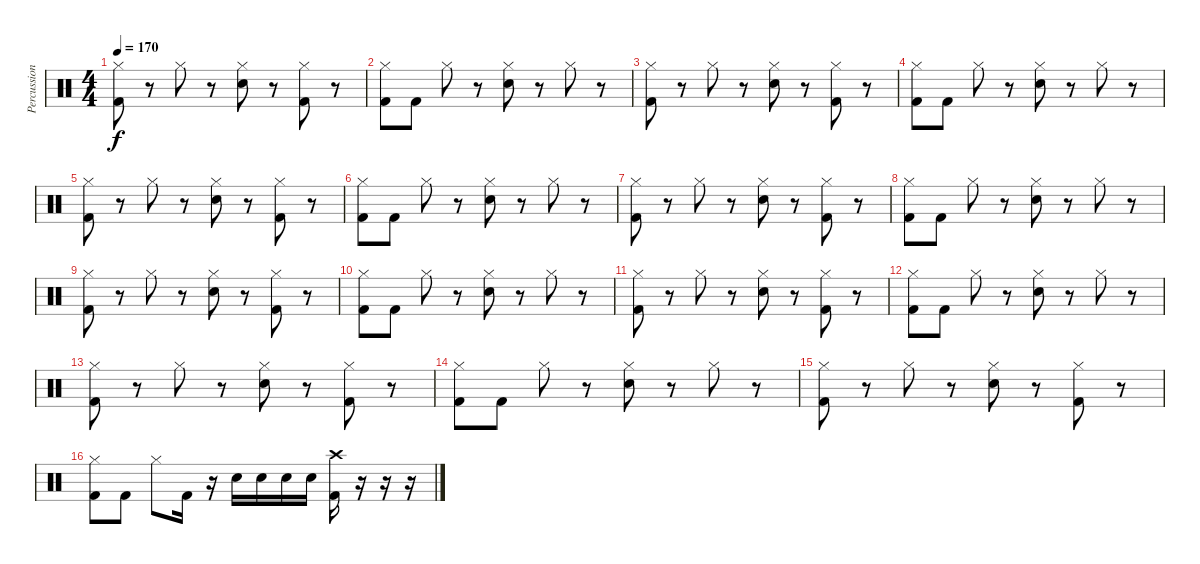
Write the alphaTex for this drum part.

\track ("Percussions" "Percussion") {instrument percussion}
\staff {score}
\articulation defaults
\ts (4 4)
\tempo 170
\clef neutral
\ks c
("Kick (hit) 2" "Hi-Hat (closed)").8{dy f} r.8 "Hi-Hat (closed)".8 r.8 ("Electric Snare (hit)" "Hi-Hat (closed)").8 r.8 ("Kick (hit) 2" "Hi-Hat (closed)").8 r.8 |
("Kick (hit) 2" "Hi-Hat (closed)").8 "Kick (hit) 2".8 "Hi-Hat (closed)".8 r.8 ("Electric Snare (hit)" "Hi-Hat (closed)").8 r.8 "Hi-Hat (closed)".8 r.8 |
("Kick (hit) 2" "Hi-Hat (closed)").8 r.8 "Hi-Hat (closed)".8 r.8 ("Electric Snare (hit)" "Hi-Hat (closed)").8 r.8 ("Kick (hit) 2" "Hi-Hat (closed)").8 r.8 |
("Kick (hit) 2" "Hi-Hat (closed)").8 "Kick (hit) 2".8 "Hi-Hat (closed)".8 r.8 ("Electric Snare (hit)" "Hi-Hat (closed)").8 r.8 "Hi-Hat (closed)".8 r.8 |
("Kick (hit) 2" "Hi-Hat (closed)").8 r.8 "Hi-Hat (closed)".8 r.8 ("Electric Snare (hit)" "Hi-Hat (closed)").8 r.8 ("Kick (hit) 2" "Hi-Hat (closed)").8 r.8 |
("Kick (hit) 2" "Hi-Hat (closed)").8 "Kick (hit) 2".8 "Hi-Hat (closed)".8 r.8 ("Electric Snare (hit)" "Hi-Hat (closed)").8 r.8 "Hi-Hat (closed)".8 r.8 |
("Kick (hit) 2" "Hi-Hat (closed)").8 r.8 "Hi-Hat (closed)".8 r.8 ("Electric Snare (hit)" "Hi-Hat (closed)").8 r.8 ("Kick (hit) 2" "Hi-Hat (closed)").8 r.8 |
("Kick (hit) 2" "Hi-Hat (closed)").8 "Kick (hit) 2".8 "Hi-Hat (closed)".8 r.8 ("Electric Snare (hit)" "Hi-Hat (closed)").8 r.8 "Hi-Hat (closed)".8 r.8 |
("Kick (hit) 2" "Hi-Hat (closed)").8 r.8 "Hi-Hat (closed)".8 r.8 ("Electric Snare (hit)" "Hi-Hat (closed)").8 r.8 ("Kick (hit) 2" "Hi-Hat (closed)").8 r.8 |
("Kick (hit) 2" "Hi-Hat (closed)").8 "Kick (hit) 2".8 "Hi-Hat (closed)".8 r.8 ("Electric Snare (hit)" "Hi-Hat (closed)").8 r.8 "Hi-Hat (closed)".8 r.8 |
("Kick (hit) 2" "Hi-Hat (closed)").8 r.8 "Hi-Hat (closed)".8 r.8 ("Electric Snare (hit)" "Hi-Hat (closed)").8 r.8 ("Kick (hit) 2" "Hi-Hat (closed)").8 r.8 |
("Kick (hit) 2" "Hi-Hat (closed)").8 "Kick (hit) 2".8 "Hi-Hat (closed)".8 r.8 ("Electric Snare (hit)" "Hi-Hat (closed)").8 r.8 "Hi-Hat (closed)".8 r.8 |
("Kick (hit) 2" "Hi-Hat (closed)").8 r.8 "Hi-Hat (closed)".8 r.8 ("Electric Snare (hit)" "Hi-Hat (closed)").8 r.8 ("Kick (hit) 2" "Hi-Hat (closed)").8 r.8 |
("Kick (hit) 2" "Hi-Hat (closed)").8 "Kick (hit) 2".8 "Hi-Hat (closed)".8 r.8 ("Electric Snare (hit)" "Hi-Hat (closed)").8 r.8 "Hi-Hat (closed)".8 r.8 |
("Kick (hit) 2" "Hi-Hat (closed)").8 r.8 "Hi-Hat (closed)".8 r.8 ("Electric Snare (hit)" "Hi-Hat (closed)").8 r.8 ("Kick (hit) 2" "Hi-Hat (closed)").8 r.8 |
("Kick (hit) 2" "Hi-Hat (closed)").8 "Kick (hit) 2".8 "Hi-Hat (closed)".8 "Kick (hit) 2".16 r.16 "Electric Snare (hit)".16 "Electric Snare (hit)".16 "Electric Snare (hit)".16 "Electric Snare (hit)".16 ("Kick (hit) 2" "Crash high (hit)").16 r.16 r.16 r.16
